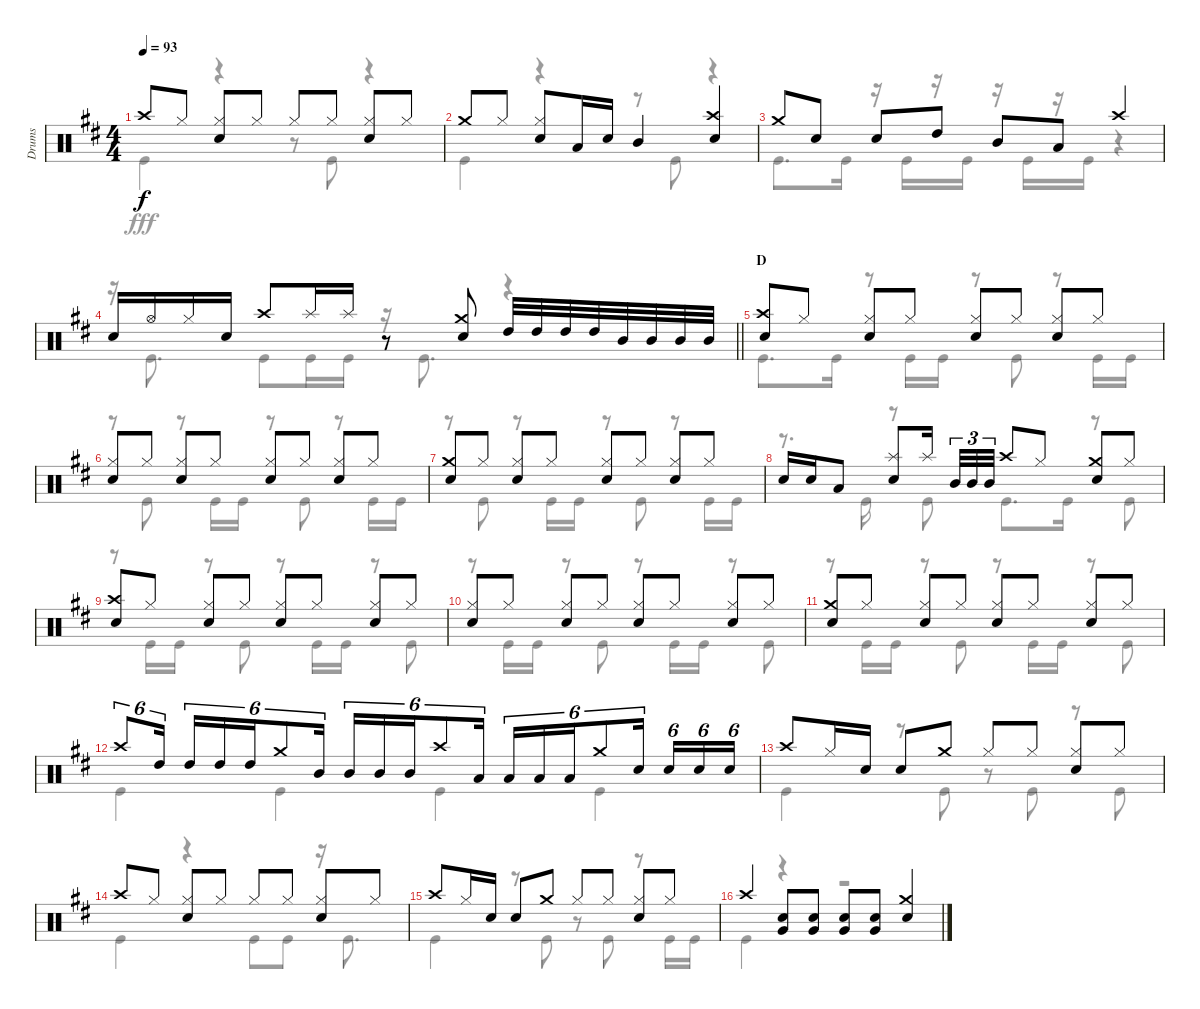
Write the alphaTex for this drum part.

\track ("Drums" "Drums") {instrument percussion}
\staff {score}
\articulation defaults
\voice
\ts (4 4)
\tempo 93
\clef neutral
\ks d "Crash high (hit)".8{dy f} "Hi-Hat (closed)".8
("Hi-Hat (closed)" "Snare (hit) 2").8 "Hi-Hat (closed)".8 "Hi-Hat (closed)".8 "Hi-Hat (closed)".8 ("Hi-Hat (closed)" "Snare (hit) 2").8 "Hi-Hat (closed)".8 |
"Crash medium (hit)".8 "Hi-Hat (closed)".8 ("Hi-Hat (closed)" "Snare (hit) 2").8 "Low Tom (hit)".16 "Snare (hit) 2".16 "Mid Tom (hit)".4 ("Snare (hit) 2" "Crash high (hit)").4 |
"Crash medium (hit)".8 "Snare (hit) 2".8 "Snare (hit) 2".8 "High Tom (hit)".8 "Mid Tom (hit)".8 "Low Tom (hit)".8 "Crash high (hit)".4 |
\barLineRight lightlight "Snare (hit) 2".16 "Hi-Hat (open)".16 "Hi-Hat (closed)".16 "Snare (hit) 2".16 "Crash high (hit)".8 "Splash (hit)".16 "Splash (hit)".16
r.8 ("Crash medium (hit)" "Snare (hit) 2").8 "High Tom (hit)".32 "High Tom (hit)".32 "High Tom (hit)".32 "High Tom (hit)".32 "Mid Tom (hit)".32 "Mid Tom (hit)".32 "Mid Tom (hit)".32 "Mid Tom (hit)".32 |
\section ("" "D")
("Crash high (hit)" "Snare (hit) 2").8 "Hi-Hat (closed)".8 ("Hi-Hat (closed)" "Snare (hit) 2").8 "Hi-Hat (closed)".8 ("Hi-Hat (closed)" "Snare (hit) 2").8 "Hi-Hat (closed)".8 ("Hi-Hat (closed)" "Snare (hit) 2").8 "Hi-Hat (closed)".8 |
("Hi-Hat (closed)" "Snare (hit) 2").8 "Hi-Hat (closed)".8 ("Hi-Hat (closed)" "Snare (hit) 2").8 "Hi-Hat (closed)".8 ("Hi-Hat (closed)" "Snare (hit) 2").8 "Hi-Hat (closed)".8 ("Hi-Hat (closed)" "Snare (hit) 2").8 "Hi-Hat (closed)".8 |
("Crash medium (hit)" "Snare (hit) 2").8 "Hi-Hat (closed)".8 ("Hi-Hat (closed)" "Snare (hit) 2").8 "Hi-Hat (closed)".8 ("Hi-Hat (closed)" "Snare (hit) 2").8 "Hi-Hat (closed)".8 ("Hi-Hat (closed)" "Snare (hit) 2").8 "Hi-Hat (closed)".8 |
"Snare (hit) 2".16 "Snare (hit) 2".16 "Low Tom (hit)".8 ("Splash (hit)" "Snare (hit) 2").8 "Splash (hit)".16{beam splitsecondary} "Mid Tom (hit)".32{tu (3 2)} "Mid Tom (hit)".32{tu (3 2)} "Mid Tom (hit)".32{tu (3 2)} "Crash high (hit)".8 "Hi-Hat (closed)".8 ("Crash medium (hit)" "Snare (hit) 2").8 "Hi-Hat (closed)".8 |
("Crash high (hit)" "Snare (hit) 2").8 "Hi-Hat (closed)".8 ("Hi-Hat (closed)" "Snare (hit) 2").8 "Hi-Hat (closed)".8 ("Hi-Hat (closed)" "Snare (hit) 2").8 "Hi-Hat (closed)".8 ("Hi-Hat (closed)" "Snare (hit) 2").8 "Hi-Hat (closed)".8 |
("Hi-Hat (closed)" "Snare (hit) 2").8 "Hi-Hat (closed)".8 ("Hi-Hat (closed)" "Snare (hit) 2").8 "Hi-Hat (closed)".8 ("Hi-Hat (closed)" "Snare (hit) 2").8 "Hi-Hat (closed)".8 ("Hi-Hat (closed)" "Snare (hit) 2").8 "Hi-Hat (closed)".8 |
("Crash medium (hit)" "Snare (hit) 2").8 "Hi-Hat (closed)".8 ("Hi-Hat (closed)" "Snare (hit) 2").8 "Hi-Hat (closed)".8 ("Hi-Hat (closed)" "Snare (hit) 2").8 "Hi-Hat (closed)".8 ("Hi-Hat (closed)" "Snare (hit) 2").8 "Hi-Hat (closed)".8 |
"Crash high (hit)".8{tu (6 4)} "High Tom (hit)".16{tu (6 4) beam splitsecondary} "High Tom (hit)".16{tu (6 4)} "High Tom (hit)".16{tu (6 4)} "High Tom (hit)".16{tu (6 4)} "Crash medium (hit)".8{tu (6 4)} "Mid Tom (hit)".16{tu (6 4) beam splitsecondary} "Mid Tom (hit)".16{tu (6 4)} "Mid Tom (hit)".16{tu (6 4)} "Mid Tom (hit)".16{tu (6 4)} "Crash high (hit)".8{tu (6 4)} "Low Tom (hit)".16{tu (6 4) beam splitsecondary} "Low Tom (hit)".16{tu (6 4)} "Low Tom (hit)".16{tu (6 4)} "Low Tom (hit)".16{tu (6 4)} "Crash medium (hit)".8{tu (6 4)} "Snare (hit) 2".16{tu (6 4) beam splitsecondary} "Snare (hit) 2".16{tu (6 4)} "Snare (hit) 2".16{tu (6 4)} "Snare (hit) 2".16{tu (6 4)} |
"Crash high (hit)".8 "Hi-Hat (closed)".16 "Snare (hit) 2".16 "Snare (hit) 2".8 "Crash medium (hit)".8 "Hi-Hat (closed)".8 "Hi-Hat (closed)".8 ("Hi-Hat (closed)" "Snare (hit) 2").8 "Hi-Hat (closed)".8 |
"Crash high (hit)".8 "Hi-Hat (closed)".8 ("Hi-Hat (closed)" "Snare (hit) 2").8 "Hi-Hat (closed)".8 "Hi-Hat (closed)".8 "Hi-Hat (closed)".8 ("Hi-Hat (closed)" "Snare (hit) 2").8 "Hi-Hat (closed)".8 |
"Crash high (hit)".8 "Hi-Hat (closed)".16 "Snare (hit) 2".16 "Snare (hit) 2".8 "Crash medium (hit)".8 "Hi-Hat (closed)".8 "Hi-Hat (closed)".8 ("Hi-Hat (closed)" "Snare (hit) 2").8 "Hi-Hat (closed)".8 |
"Crash high (hit)".4 ("Snare (hit) 2" "Very Low Tom (hit)").8 ("Snare (hit) 2" "Very Low Tom (hit)").8 ("Snare (hit) 2" "Very Low Tom (hit)").8 ("Snare (hit) 2" "Very Low Tom (hit)").8 ("Snare (hit) 2" "Crash medium (hit)").4
\voice
\clef neutral
\ottava regular
\simile none
\ks d "Kick (hit)".4{dy fff}
r.4 r.8 "Kick (hit)".8 r.4 |
"Kick (hit)".4 r.4 r.8 "Kick (hit)".8 r.4 |
"Kick (hit)".8{d} "Kick (hit)".16 r.16 "Kick (hit)".16 r.16 "Kick (hit)".16 r.16 "Kick (hit)".16 r.16 "Kick (hit)".16 r.4 |
\barLineRight lightlight
r.16 "Kick (hit)".8{d} "Kick (hit)".8 "Kick (hit)".16 "Kick (hit)".16 r.16 "Kick (hit)".8{d} r.4 |
"Kick (hit)".8{d} "Kick (hit)".16 r.8 "Kick (hit)".16 "Kick (hit)".16 r.8 "Kick (hit)".8 r.8 "Kick (hit)".16 "Kick (hit)".16 |
r.8 "Kick (hit)".8 r.8 "Kick (hit)".16 "Kick (hit)".16 r.8 "Kick (hit)".8 r.8 "Kick (hit)".16 "Kick (hit)".16 |
r.8 "Kick (hit)".8 r.8 "Kick (hit)".16 "Kick (hit)".16 r.8 "Kick (hit)".8 r.8 "Kick (hit)".16 "Kick (hit)".16 |
r.8{d} "Kick (hit)".16 r.8 "Kick (hit)".8 "Kick (hit)".8{d} "Kick (hit)".16 r.8 "Kick (hit)".8 |
r.8 "Kick (hit)".16 "Kick (hit)".16 r.8 "Kick (hit)".8 r.8 "Kick (hit)".16 "Kick (hit)".16 r.8 "Kick (hit)".8 |
r.8 "Kick (hit)".16 "Kick (hit)".16 r.8 "Kick (hit)".8 r.8 "Kick (hit)".16 "Kick (hit)".16 r.8 "Kick (hit)".8 |
r.8 "Kick (hit)".16 "Kick (hit)".16 r.8 "Kick (hit)".8 r.8 "Kick (hit)".16 "Kick (hit)".16 r.8 "Kick (hit)".8 |
"Kick (hit)".4 "Kick (hit)".4 "Kick (hit)".4 "Kick (hit)".4 |
"Kick (hit)".4 r.8 "Kick (hit)".8 r.8 "Kick (hit)".8 r.8 "Kick (hit)".8 |
"Kick (hit)".4 r.4 "Kick (hit)".8 "Kick (hit)".8 r.16 "Kick (hit)".8{d} |
"Kick (hit)".4 r.8 "Kick (hit)".8 r.8 "Kick (hit)".8 r.8 "Kick (hit)".16 "Kick (hit)".16 |
"Kick (hit)".4 r.4 r.2
